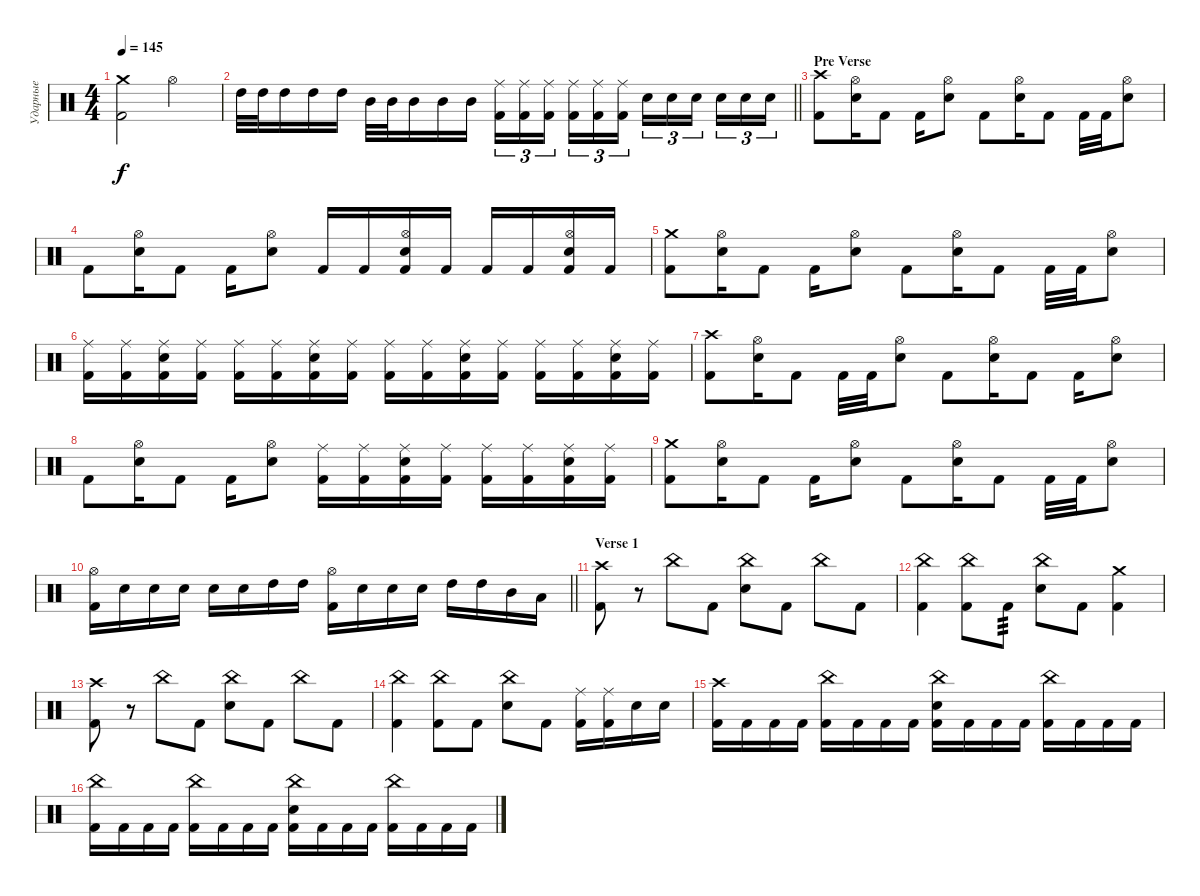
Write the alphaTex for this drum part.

\track ("Ударные" "Ударные") {instrument percussion}
\staff {score}
\articulation defaults
\ts (4 4)
\tempo 145
\clef neutral
\ks c
("Crash medium (hit)" "Kick (hit) 2").2{dy f} "Hi-Hat (open)".2 |
\barLineRight lightlight "High Tom (hit)".32 "High Tom (hit)".32 "High Tom (hit)".16 "High Tom (hit)".16 "High Tom (hit)".16 "Mid Tom (hit)".32 "Mid Tom (hit)".32 "Mid Tom (hit)".16 "Mid Tom (hit)".16 "Mid Tom (hit)".16
("Ride (middle)" "Kick (hit) 2").16{tu (3 2)} ("Ride (middle)" "Kick (hit) 2").16{tu (3 2)} ("Ride (middle)" "Kick (hit) 2").16{tu (3 2) beam splitsecondary} ("Ride (middle)" "Kick (hit) 2").16{tu (3 2)} ("Ride (middle)" "Kick (hit) 2").16{tu (3 2)} ("Ride (middle)" "Kick (hit) 2").16{tu (3 2)} "Electric Snare (hit)".16{tu (3 2)} "Electric Snare (hit)".16{tu (3 2)} "Electric Snare (hit)".16{tu (3 2) beam splitsecondary} "Electric Snare (hit)".16{tu (3 2)} "Electric Snare (hit)".16{tu (3 2)} "Electric Snare (hit)".16{tu (3 2)} |
\section ("" "Pre Verse")
("Crash high (hit)" "Kick (hit) 2").8 ("Hi-Hat (open)" "Electric Snare (hit)").16 "Kick (hit) 2".8 "Kick (hit) 2".16 ("Hi-Hat (open)" "Electric Snare (hit)").8 "Kick (hit) 2".8 ("Hi-Hat (open)" "Electric Snare (hit)").16 "Kick (hit) 2".8 "Kick (hit) 2".32 "Kick (hit) 2".32 ("Hi-Hat (open)" "Electric Snare (hit)").8 |
"Kick (hit) 2".8 ("Hi-Hat (open)" "Electric Snare (hit)").16 "Kick (hit) 2".8 "Kick (hit) 2".16 ("Hi-Hat (open)" "Electric Snare (hit)").8 "Kick (hit) 2".16 "Kick (hit) 2".16 ("Hi-Hat (open)" "Electric Snare (hit)" "Kick (hit) 2").16 "Kick (hit) 2".16 "Kick (hit) 2".16 "Kick (hit) 2".16 ("Hi-Hat (open)" "Electric Snare (hit)" "Kick (hit) 2").16 "Kick (hit) 2".16 |
("Crash medium (hit)" "Kick (hit) 2").8 ("Hi-Hat (open)" "Electric Snare (hit)").16 "Kick (hit) 2".8 "Kick (hit) 2".16 ("Hi-Hat (open)" "Electric Snare (hit)").8 "Kick (hit) 2".8 ("Hi-Hat (open)" "Electric Snare (hit)").16 "Kick (hit) 2".8 "Kick (hit) 2".32 "Kick (hit) 2".32 ("Hi-Hat (open)" "Electric Snare (hit)").8 |
("Ride (middle)" "Kick (hit) 2").16 ("Ride (middle)" "Kick (hit) 2").16 ("Ride (middle)" "Electric Snare (hit)" "Kick (hit) 2").16 ("Ride (middle)" "Kick (hit) 2").16 ("Ride (middle)" "Kick (hit) 2").16 ("Ride (middle)" "Kick (hit) 2").16 ("Ride (middle)" "Electric Snare (hit)" "Kick (hit) 2").16 ("Ride (middle)" "Kick (hit) 2").16 ("Ride (middle)" "Kick (hit) 2").16 ("Ride (middle)" "Kick (hit) 2").16 ("Ride (middle)" "Electric Snare (hit)" "Kick (hit) 2").16 ("Ride (middle)" "Kick (hit) 2").16 ("Ride (middle)" "Kick (hit) 2").16 ("Ride (middle)" "Kick (hit) 2").16 ("Ride (middle)" "Electric Snare (hit)" "Kick (hit) 2").16 ("Ride (middle)" "Kick (hit) 2").16 |
("Crash high (hit)" "Kick (hit) 2").8 ("Hi-Hat (open)" "Electric Snare (hit)").16 "Kick (hit) 2".8 "Kick (hit) 2".32 "Kick (hit) 2".32 ("Hi-Hat (open)" "Electric Snare (hit)").8 "Kick (hit) 2".8 ("Hi-Hat (open)" "Electric Snare (hit)").16 "Kick (hit) 2".8 "Kick (hit) 2".16 ("Hi-Hat (open)" "Electric Snare (hit)").8 |
"Kick (hit) 2".8 ("Hi-Hat (open)" "Electric Snare (hit)").16 "Kick (hit) 2".8 "Kick (hit) 2".16 ("Hi-Hat (open)" "Electric Snare (hit)").8 ("Ride (middle)" "Kick (hit) 2").16 ("Ride (middle)" "Kick (hit) 2").16 ("Ride (middle)" "Electric Snare (hit)" "Kick (hit) 2").16 ("Ride (middle)" "Kick (hit) 2").16 ("Ride (middle)" "Kick (hit) 2").16 ("Ride (middle)" "Kick (hit) 2").16 ("Ride (middle)" "Electric Snare (hit)" "Kick (hit) 2").16 ("Ride (middle)" "Kick (hit) 2").16 |
("Crash medium (hit)" "Kick (hit) 2").8 ("Hi-Hat (open)" "Electric Snare (hit)").16 "Kick (hit) 2".8 "Kick (hit) 2".16 ("Hi-Hat (open)" "Electric Snare (hit)").8 "Kick (hit) 2".8 ("Hi-Hat (open)" "Electric Snare (hit)").16 "Kick (hit) 2".8 "Kick (hit) 2".32 "Kick (hit) 2".32 ("Hi-Hat (open)" "Electric Snare (hit)").8 |
\barLineRight lightlight
("Hi-Hat (open)" "Kick (hit) 2").16 "Electric Snare (hit)".16 "Electric Snare (hit)".16 "Electric Snare (hit)".16 "Electric Snare (hit)".16 "Electric Snare (hit)".16 "High Tom (hit)".16 "High Tom (hit)".16 ("Hi-Hat (open)" "Kick (hit) 2").16 "Electric Snare (hit)".16 "Electric Snare (hit)".16 "Electric Snare (hit)".16 "High Tom (hit)".16 "High Tom (hit)".16 "Mid Tom (hit)".16 "Low Tom (hit)".16 |
\section ("" "Verse 1")
("Crash high (hit)" "Kick (hit) 2").8 r.8 "China (hit)".8 "Kick (hit) 2".8 ("China (hit)" "Electric Snare (hit)").8 "Kick (hit) 2".8 "China (hit)".8 "Kick (hit) 2".8 |
("China (hit)" "Kick (hit) 2").4 ("China (hit)" "Kick (hit) 2").8 "Kick (hit) 2".8{tp 3} ("China (hit)" "Electric Snare (hit)").8 "Kick (hit) 2".8 ("Crash medium (hit)" "Kick (hit) 2").4 |
("Crash high (hit)" "Kick (hit) 2").8 r.8 "China (hit)".8 "Kick (hit) 2".8 ("China (hit)" "Electric Snare (hit)").8 "Kick (hit) 2".8 "China (hit)".8 "Kick (hit) 2".8 |
("China (hit)" "Kick (hit) 2").4 ("China (hit)" "Kick (hit) 2").8 "Kick (hit) 2".8 ("China (hit)" "Electric Snare (hit)").8 "Kick (hit) 2".8 ("Ride (middle)" "Kick (hit) 2").16 ("Ride (middle)" "Kick (hit) 2").16 "Electric Snare (hit)".16 "Electric Snare (hit)".16 |
("Crash high (hit)" "Kick (hit) 2").16 "Kick (hit) 2".16 "Kick (hit) 2".16 "Kick (hit) 2".16 ("China (hit)" "Kick (hit) 2").16 "Kick (hit) 2".16 "Kick (hit) 2".16 "Kick (hit) 2".16 ("China (hit)" "Electric Snare (hit)" "Kick (hit) 2").16 "Kick (hit) 2".16 "Kick (hit) 2".16 "Kick (hit) 2".16 ("China (hit)" "Kick (hit) 2").16 "Kick (hit) 2".16 "Kick (hit) 2".16 "Kick (hit) 2".16 |
("China (hit)" "Kick (hit) 2").16 "Kick (hit) 2".16 "Kick (hit) 2".16 "Kick (hit) 2".16 ("China (hit)" "Kick (hit) 2").16 "Kick (hit) 2".16 "Kick (hit) 2".16 "Kick (hit) 2".16 ("China (hit)" "Electric Snare (hit)" "Kick (hit) 2").16 "Kick (hit) 2".16 "Kick (hit) 2".16 "Kick (hit) 2".16 ("China (hit)" "Kick (hit) 2").16 "Kick (hit) 2".16 "Kick (hit) 2".16 "Kick (hit) 2".16
